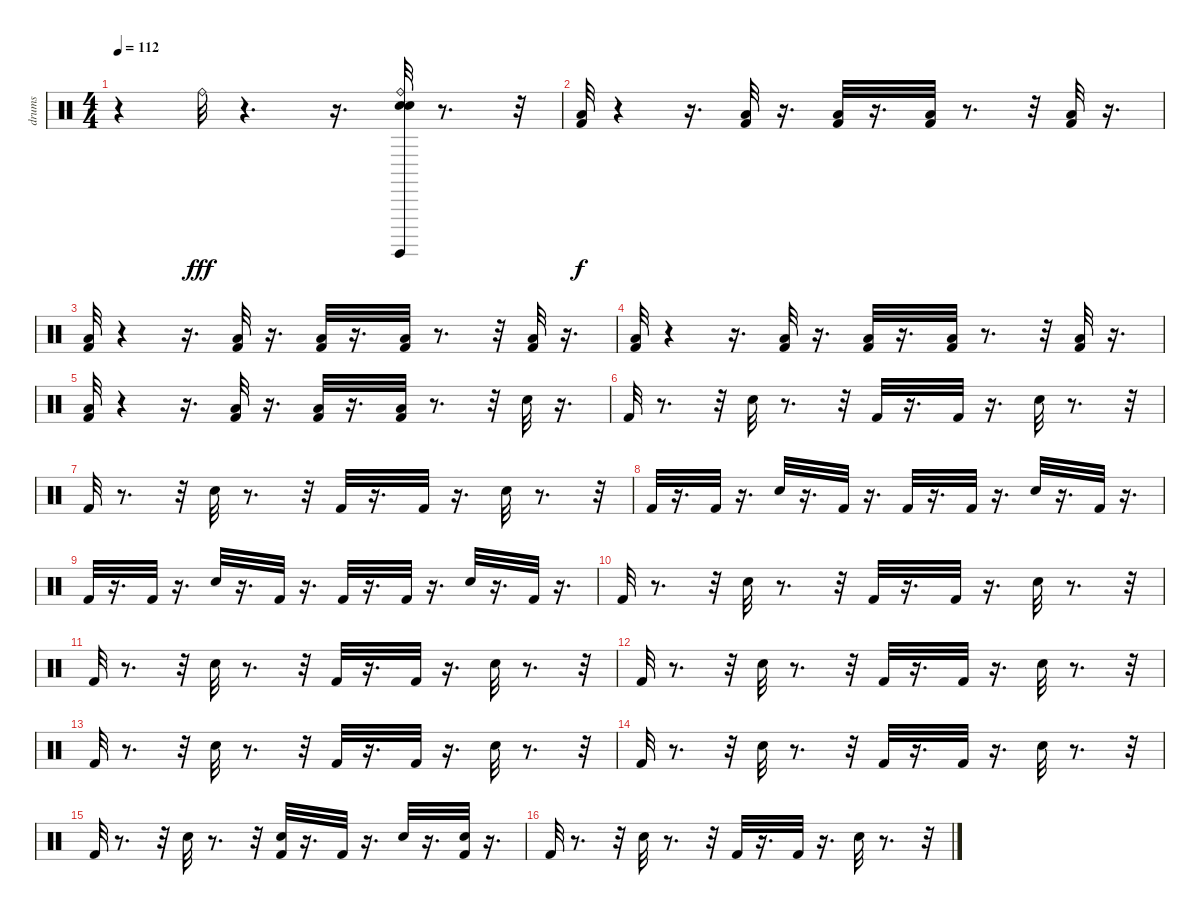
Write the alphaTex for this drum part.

\track ("drums" "drums") {instrument percussion}
\staff {score}
\articulation defaults
\ts (4 4)
\tempo 112
\clef neutral
\ks c
r.4{dy fff} "Ride (bell)".32 r.4{d} r.16{d} ("Ride (bell)" "Snare (hit) 2" "Electric Snare (hit)" "Surdo (hit)").32 r.8{d} r.32 |
("Low Floor Tom (hit)" "Kick (hit) 2").32{dy f} r.4 r.16{d} ("Kick (hit) 2" "Low Floor Tom (hit)").32 r.16{d} ("Kick (hit) 2" "Low Floor Tom (hit)").32 r.16{d} ("Low Floor Tom (hit)" "Kick (hit) 2").32 r.8{d} r.32 ("Low Floor Tom (hit)" "Kick (hit) 2").32 r.16{d} |
("Low Floor Tom (hit)" "Kick (hit) 2").32 r.4 r.16{d} ("Kick (hit) 2" "Low Floor Tom (hit)").32 r.16{d} ("Kick (hit) 2" "Low Floor Tom (hit)").32 r.16{d} ("Low Floor Tom (hit)" "Kick (hit) 2").32 r.8{d} r.32 ("Low Floor Tom (hit)" "Kick (hit) 2").32 r.16{d} |
("Low Floor Tom (hit)" "Kick (hit) 2").32 r.4 r.16{d} ("Kick (hit) 2" "Low Floor Tom (hit)").32 r.16{d} ("Kick (hit) 2" "Low Floor Tom (hit)").32 r.16{d} ("Low Floor Tom (hit)" "Kick (hit) 2").32 r.8{d} r.32 ("Low Floor Tom (hit)" "Kick (hit) 2").32 r.16{d} |
("Low Floor Tom (hit)" "Kick (hit) 2").32 r.4 r.16{d} ("Kick (hit) 2" "Low Floor Tom (hit)").32 r.16{d} ("Kick (hit) 2" "Low Floor Tom (hit)").32 r.16{d} ("Low Floor Tom (hit)" "Kick (hit) 2").32 r.8{d} r.32 "Snare (hit) 2".32 r.16{d} |
"Kick (hit) 2".32 r.8{d} r.32 "Snare (hit) 2".32 r.8{d} r.32 "Kick (hit) 2".32 r.16{d} "Kick (hit) 2".32 r.16{d} "Snare (hit) 2".32 r.8{d} r.32 |
"Kick (hit) 2".32 r.8{d} r.32 "Snare (hit) 2".32 r.8{d} r.32 "Kick (hit) 2".32 r.16{d} "Kick (hit) 2".32 r.16{d} "Snare (hit) 2".32 r.8{d} r.32 |
"Kick (hit) 2".32 r.16{d} "Kick (hit) 2".32 r.16{d} "Snare (hit) 2".32 r.16{d} "Kick (hit) 2".32 r.16{d} "Kick (hit) 2".32 r.16{d} "Kick (hit) 2".32 r.16{d} "Snare (hit) 2".32 r.16{d} "Kick (hit) 2".32 r.16{d} |
"Kick (hit) 2".32 r.16{d} "Kick (hit) 2".32 r.16{d} "Snare (hit) 2".32 r.16{d} "Kick (hit) 2".32 r.16{d} "Kick (hit) 2".32 r.16{d} "Kick (hit) 2".32 r.16{d} "Snare (hit) 2".32 r.16{d} "Kick (hit) 2".32 r.16{d} |
"Kick (hit) 2".32 r.8{d} r.32 "Snare (hit) 2".32 r.8{d} r.32 "Kick (hit) 2".32 r.16{d} "Kick (hit) 2".32 r.16{d} "Snare (hit) 2".32 r.8{d} r.32 |
"Kick (hit) 2".32 r.8{d} r.32 "Snare (hit) 2".32 r.8{d} r.32 "Kick (hit) 2".32 r.16{d} "Kick (hit) 2".32 r.16{d} "Snare (hit) 2".32 r.8{d} r.32 |
"Kick (hit) 2".32 r.8{d} r.32 "Snare (hit) 2".32 r.8{d} r.32 "Kick (hit) 2".32 r.16{d} "Kick (hit) 2".32 r.16{d} "Snare (hit) 2".32 r.8{d} r.32 |
"Kick (hit) 2".32 r.8{d} r.32 "Snare (hit) 2".32 r.8{d} r.32 "Kick (hit) 2".32 r.16{d} "Kick (hit) 2".32 r.16{d} "Snare (hit) 2".32 r.8{d} r.32 |
"Kick (hit) 2".32 r.8{d} r.32 "Snare (hit) 2".32 r.8{d} r.32 "Kick (hit) 2".32 r.16{d} "Kick (hit) 2".32 r.16{d} "Snare (hit) 2".32 r.8{d} r.32 |
"Kick (hit) 2".32 r.8{d} r.32 "Snare (hit) 2".32 r.8{d} r.32 ("Snare (hit) 2" "Kick (hit) 2").32 r.16{d} "Kick (hit) 2".32 r.16{d} "Snare (hit) 2".32 r.16{d} ("Kick (hit) 2" "Snare (hit) 2").32 r.16{d} |
"Kick (hit) 2".32 r.8{d} r.32 "Snare (hit) 2".32 r.8{d} r.32 "Kick (hit) 2".32 r.16{d} "Kick (hit) 2".32 r.16{d} "Snare (hit) 2".32 r.8{d} r.32
